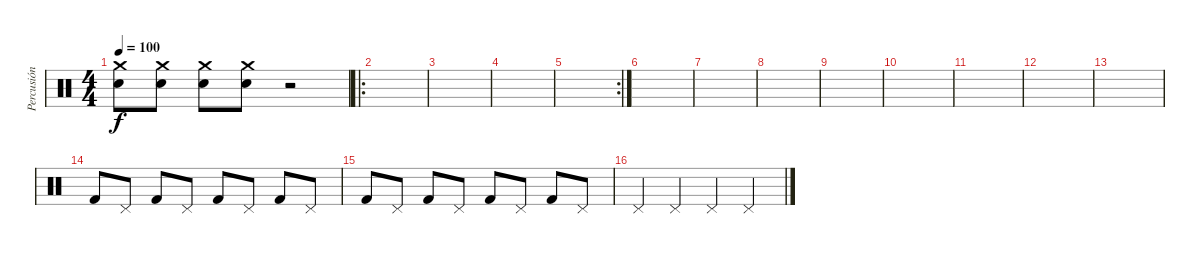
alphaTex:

\track ("Percusión" "Percusión") {instrument percussion}
\staff {score}
\articulation defaults
\ts (4 4)
\tempo 100
\clef neutral
\ks c
("Snare (hit) 2" "Crash medium (hit)").8{dy f} ("Snare (hit) 2" "Crash medium (hit)").8 ("Snare (hit) 2" "Crash medium (hit)").8 ("Snare (hit) 2" "Crash medium (hit)").8 r.2 |
\ro
|
|
|
\rc 2
|
|
|
|
|
|
|
|
|
"Kick (hit) 2".8 "Pedal Hi-Hat (hit)".8 "Kick (hit) 2".8 "Pedal Hi-Hat (hit)".8 "Kick (hit) 2".8 "Pedal Hi-Hat (hit)".8 "Kick (hit) 2".8 "Pedal Hi-Hat (hit)".8 |
"Kick (hit) 2".8 "Pedal Hi-Hat (hit)".8 "Kick (hit) 2".8 "Pedal Hi-Hat (hit)".8 "Kick (hit) 2".8 "Pedal Hi-Hat (hit)".8 "Kick (hit) 2".8 "Pedal Hi-Hat (hit)".8 |
"Pedal Hi-Hat (hit)".4 "Pedal Hi-Hat (hit)".4 "Pedal Hi-Hat (hit)".4 "Pedal Hi-Hat (hit)".4
